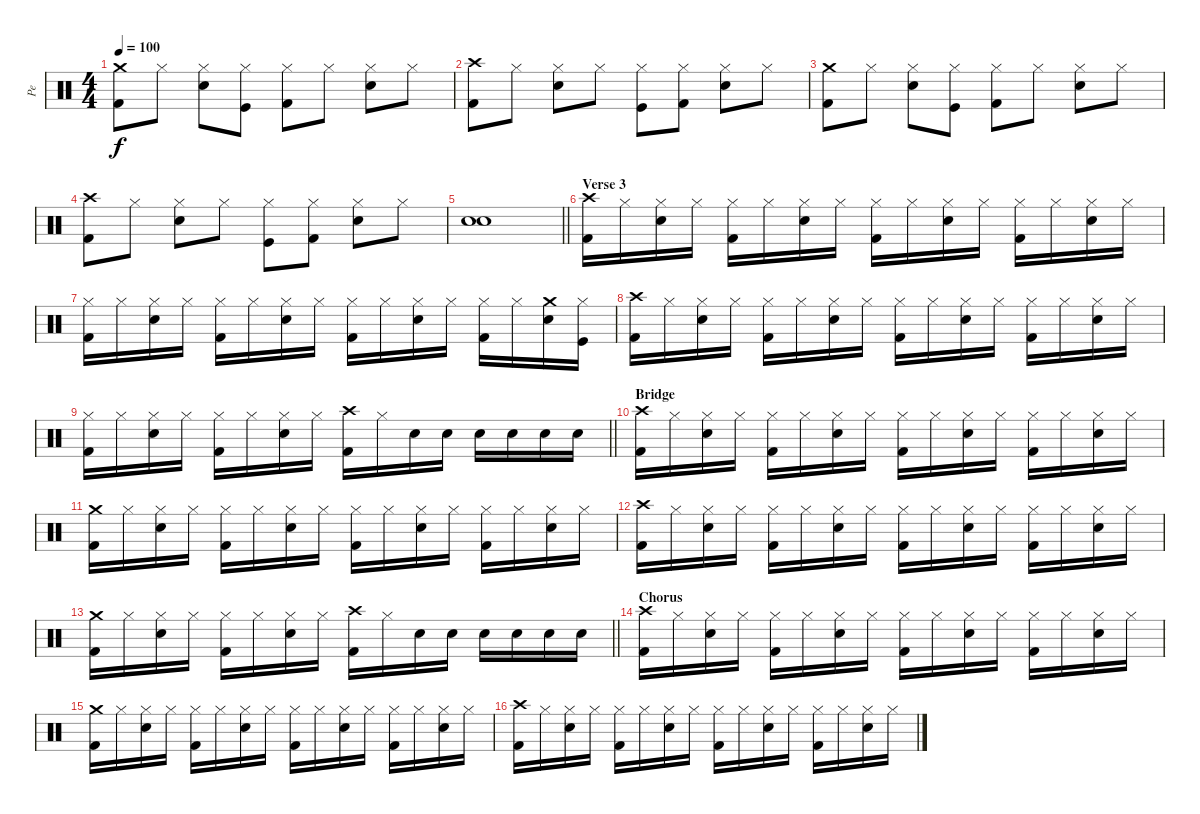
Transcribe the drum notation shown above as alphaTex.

\track ("Pe" "Pe") {instrument percussion}
\staff {score}
\articulation defaults
\ts (4 4)
\tempo 100
\clef neutral
\ks c
("Kick (hit) 2" "Crash medium (hit)").8{dy f} "Hi-Hat (closed)".8 ("Electric Snare (hit)" "Hi-Hat (closed)").8 ("Kick (hit)" "Hi-Hat (closed)").8 ("Kick (hit) 2" "Hi-Hat (closed)").8 "Hi-Hat (closed)".8 ("Electric Snare (hit)" "Hi-Hat (closed)").8 "Hi-Hat (closed)".8 |
("Kick (hit) 2" "Crash high (hit)").8 "Hi-Hat (closed)".8 ("Electric Snare (hit)" "Hi-Hat (closed)").8 "Hi-Hat (closed)".8 ("Kick (hit)" "Hi-Hat (closed)").8 ("Kick (hit) 2" "Hi-Hat (closed)").8 ("Electric Snare (hit)" "Hi-Hat (closed)").8 "Hi-Hat (closed)".8 |
("Kick (hit) 2" "Crash medium (hit)").8 "Hi-Hat (closed)".8 ("Electric Snare (hit)" "Hi-Hat (closed)").8 ("Kick (hit)" "Hi-Hat (closed)").8 ("Kick (hit) 2" "Hi-Hat (closed)").8 "Hi-Hat (closed)".8 ("Electric Snare (hit)" "Hi-Hat (closed)").8 "Hi-Hat (closed)".8 |
("Kick (hit) 2" "Crash high (hit)").8 "Hi-Hat (closed)".8 ("Electric Snare (hit)" "Hi-Hat (closed)").8 "Hi-Hat (closed)".8 ("Kick (hit)" "Hi-Hat (closed)").8 ("Kick (hit) 2" "Hi-Hat (closed)").8 ("Electric Snare (hit)" "Hi-Hat (closed)").8 "Hi-Hat (closed)".8 |
\barLineRight lightlight
("Electric Snare (hit)" "Electric Snare (hit)").1 |
\section ("" "Verse 3")
("Kick (hit) 2" "Crash high (hit)").16 "Hi-Hat (closed)".16 ("Electric Snare (hit)" "Hi-Hat (closed)").16 "Hi-Hat (closed)".16 ("Kick (hit) 2" "Hi-Hat (closed)").16 "Hi-Hat (closed)".16 ("Electric Snare (hit)" "Hi-Hat (closed)").16 "Hi-Hat (closed)".16 ("Kick (hit) 2" "Hi-Hat (closed)").16 "Hi-Hat (closed)".16 ("Electric Snare (hit)" "Hi-Hat (closed)").16 "Hi-Hat (closed)".16 ("Kick (hit) 2" "Hi-Hat (closed)").16 "Hi-Hat (closed)".16 ("Electric Snare (hit)" "Hi-Hat (closed)").16 "Hi-Hat (closed)".16 |
("Kick (hit) 2" "Hi-Hat (closed)").16 "Hi-Hat (closed)".16 ("Electric Snare (hit)" "Hi-Hat (closed)").16 "Hi-Hat (closed)".16 ("Kick (hit) 2" "Hi-Hat (closed)").16 "Hi-Hat (closed)".16 ("Electric Snare (hit)" "Hi-Hat (closed)").16 "Hi-Hat (closed)".16 ("Kick (hit) 2" "Hi-Hat (closed)").16 "Hi-Hat (closed)".16 ("Electric Snare (hit)" "Hi-Hat (closed)").16 "Hi-Hat (closed)".16 ("Kick (hit) 2" "Hi-Hat (closed)").16 "Hi-Hat (closed)".16 ("Electric Snare (hit)" "Crash medium (hit)").16 ("Kick (hit)" "Hi-Hat (closed)").16 |
("Kick (hit) 2" "Crash high (hit)").16 "Hi-Hat (closed)".16 ("Electric Snare (hit)" "Hi-Hat (closed)").16 "Hi-Hat (closed)".16 ("Kick (hit) 2" "Hi-Hat (closed)").16 "Hi-Hat (closed)".16 ("Electric Snare (hit)" "Hi-Hat (closed)").16 "Hi-Hat (closed)".16 ("Kick (hit) 2" "Hi-Hat (closed)").16 "Hi-Hat (closed)".16 ("Electric Snare (hit)" "Hi-Hat (closed)").16 "Hi-Hat (closed)".16 ("Kick (hit) 2" "Hi-Hat (closed)").16 "Hi-Hat (closed)".16 ("Electric Snare (hit)" "Hi-Hat (closed)").16 "Hi-Hat (closed)".16 |
\barLineRight lightlight
("Kick (hit) 2" "Hi-Hat (closed)").16 "Hi-Hat (closed)".16 ("Electric Snare (hit)" "Hi-Hat (closed)").16 "Hi-Hat (closed)".16 ("Kick (hit) 2" "Hi-Hat (closed)").16 "Hi-Hat (closed)".16 ("Electric Snare (hit)" "Hi-Hat (closed)").16 "Hi-Hat (closed)".16 ("Kick (hit) 2" "Crash high (hit)").16 "Hi-Hat (closed)".16 "Electric Snare (hit)".16 "Electric Snare (hit)".16 "Electric Snare (hit)".16 "Electric Snare (hit)".16 "Electric Snare (hit)".16 "Electric Snare (hit)".16 |
\section ("" "Bridge")
("Kick (hit) 2" "Crash high (hit)").16 "Hi-Hat (closed)".16 ("Electric Snare (hit)" "Hi-Hat (closed)").16 "Hi-Hat (closed)".16 ("Kick (hit) 2" "Hi-Hat (closed)").16 "Hi-Hat (closed)".16 ("Electric Snare (hit)" "Hi-Hat (closed)").16 "Hi-Hat (closed)".16 ("Kick (hit) 2" "Hi-Hat (closed)").16 "Hi-Hat (closed)".16 ("Electric Snare (hit)" "Hi-Hat (closed)").16 "Hi-Hat (closed)".16 ("Kick (hit) 2" "Hi-Hat (closed)").16 "Hi-Hat (closed)".16 ("Electric Snare (hit)" "Hi-Hat (closed)").16 "Hi-Hat (closed)".16 |
("Kick (hit) 2" "Crash medium (hit)").16 "Hi-Hat (closed)".16 ("Electric Snare (hit)" "Hi-Hat (closed)").16 "Hi-Hat (closed)".16 ("Kick (hit) 2" "Hi-Hat (closed)").16 "Hi-Hat (closed)".16 ("Electric Snare (hit)" "Hi-Hat (closed)").16 "Hi-Hat (closed)".16 ("Kick (hit) 2" "Hi-Hat (closed)").16 "Hi-Hat (closed)".16 ("Electric Snare (hit)" "Hi-Hat (closed)").16 "Hi-Hat (closed)".16 ("Kick (hit) 2" "Hi-Hat (closed)").16 "Hi-Hat (closed)".16 ("Electric Snare (hit)" "Hi-Hat (closed)").16 "Hi-Hat (closed)".16 |
("Kick (hit) 2" "Crash high (hit)").16 "Hi-Hat (closed)".16 ("Electric Snare (hit)" "Hi-Hat (closed)").16 "Hi-Hat (closed)".16 ("Kick (hit) 2" "Hi-Hat (closed)").16 "Hi-Hat (closed)".16 ("Electric Snare (hit)" "Hi-Hat (closed)").16 "Hi-Hat (closed)".16 ("Kick (hit) 2" "Hi-Hat (closed)").16 "Hi-Hat (closed)".16 ("Electric Snare (hit)" "Hi-Hat (closed)").16 "Hi-Hat (closed)".16 ("Kick (hit) 2" "Hi-Hat (closed)").16 "Hi-Hat (closed)".16 ("Electric Snare (hit)" "Hi-Hat (closed)").16 "Hi-Hat (closed)".16 |
\barLineRight lightlight
("Kick (hit) 2" "Crash medium (hit)").16 "Hi-Hat (closed)".16 ("Electric Snare (hit)" "Hi-Hat (closed)").16 "Hi-Hat (closed)".16 ("Kick (hit) 2" "Hi-Hat (closed)").16 "Hi-Hat (closed)".16 ("Electric Snare (hit)" "Hi-Hat (closed)").16 "Hi-Hat (closed)".16 ("Kick (hit) 2" "Crash high (hit)").16 "Hi-Hat (closed)".16 "Electric Snare (hit)".16 "Electric Snare (hit)".16 "Electric Snare (hit)".16 "Electric Snare (hit)".16 "Electric Snare (hit)".16 "Electric Snare (hit)".16 |
\section ("" "Chorus")
("Kick (hit) 2" "Crash high (hit)").16 "Hi-Hat (closed)".16 ("Electric Snare (hit)" "Hi-Hat (closed)").16 "Hi-Hat (closed)".16 ("Kick (hit) 2" "Hi-Hat (closed)").16 "Hi-Hat (closed)".16 ("Electric Snare (hit)" "Hi-Hat (closed)").16 "Hi-Hat (closed)".16 ("Kick (hit) 2" "Hi-Hat (closed)").16 "Hi-Hat (closed)".16 ("Electric Snare (hit)" "Hi-Hat (closed)").16 "Hi-Hat (closed)".16 ("Kick (hit) 2" "Hi-Hat (closed)").16 "Hi-Hat (closed)".16 ("Electric Snare (hit)" "Hi-Hat (closed)").16 "Hi-Hat (closed)".16 |
("Kick (hit) 2" "Crash medium (hit)").16 "Hi-Hat (closed)".16 ("Electric Snare (hit)" "Hi-Hat (closed)").16 "Hi-Hat (closed)".16 ("Kick (hit) 2" "Hi-Hat (closed)").16 "Hi-Hat (closed)".16 ("Electric Snare (hit)" "Hi-Hat (closed)").16 "Hi-Hat (closed)".16 ("Kick (hit) 2" "Hi-Hat (closed)").16 "Hi-Hat (closed)".16 ("Electric Snare (hit)" "Hi-Hat (closed)").16 "Hi-Hat (closed)".16 ("Kick (hit) 2" "Hi-Hat (closed)").16 "Hi-Hat (closed)".16 ("Electric Snare (hit)" "Hi-Hat (closed)").16 "Hi-Hat (closed)".16 |
("Kick (hit) 2" "Crash high (hit)").16 "Hi-Hat (closed)".16 ("Electric Snare (hit)" "Hi-Hat (closed)").16 "Hi-Hat (closed)".16 ("Kick (hit) 2" "Hi-Hat (closed)").16 "Hi-Hat (closed)".16 ("Electric Snare (hit)" "Hi-Hat (closed)").16 "Hi-Hat (closed)".16 ("Kick (hit) 2" "Hi-Hat (closed)").16 "Hi-Hat (closed)".16 ("Electric Snare (hit)" "Hi-Hat (closed)").16 "Hi-Hat (closed)".16 ("Kick (hit) 2" "Hi-Hat (closed)").16 "Hi-Hat (closed)".16 ("Electric Snare (hit)" "Hi-Hat (closed)").16 "Hi-Hat (closed)".16
